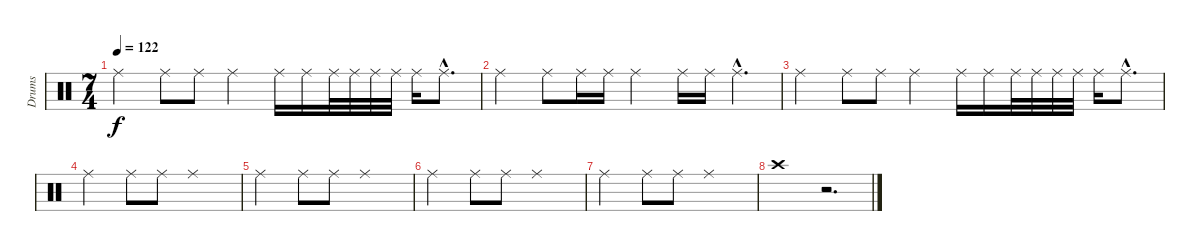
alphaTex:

\track ("Drums" "Drums") {instrument percussion}
\staff {score}
\articulation defaults
\ts (7 4)
\tempo 122
\clef neutral
\ks c "Ride (middle)".2{dy f} "Ride (middle)".8 "Ride (middle)".8 "Ride (middle)".2 "Ride (middle)".16 "Ride (middle)".16 "Ride (middle)".32 "Ride (middle)".32 "Ride (middle)".32 "Ride (middle)".32 "Ride (middle)".16 "Ride (middle)"{hac}.8{d}
|
"Ride (middle)".2 "Ride (middle)".8 "Ride (middle)".16 "Ride (middle)".16 "Ride (middle)".2 "Ride (middle)".16 "Ride (middle)".16 "Ride (middle)"{hac}.4{d} |
"Ride (middle)".2 "Ride (middle)".8 "Ride (middle)".8 "Ride (middle)".2 "Ride (middle)".16 "Ride (middle)".16 "Ride (middle)".32 "Ride (middle)".32 "Ride (middle)".32 "Ride (middle)".32 "Ride (middle)".16 "Ride (middle)"{hac}.8{d} |
"Ride (middle)".2 "Ride (middle)".8 "Ride (middle)".8 "Ride (middle)".1 |
"Ride (middle)".2 "Ride (middle)".8 "Ride (middle)".8 "Ride (middle)".1 |
"Ride (middle)".2 "Ride (middle)".8 "Ride (middle)".8 "Ride (middle)".1 |
"Ride (middle)".2 "Ride (middle)".8 "Ride (middle)".8 "Ride (middle)".1 |
"Crash high (hit)".1 r.2{d}
